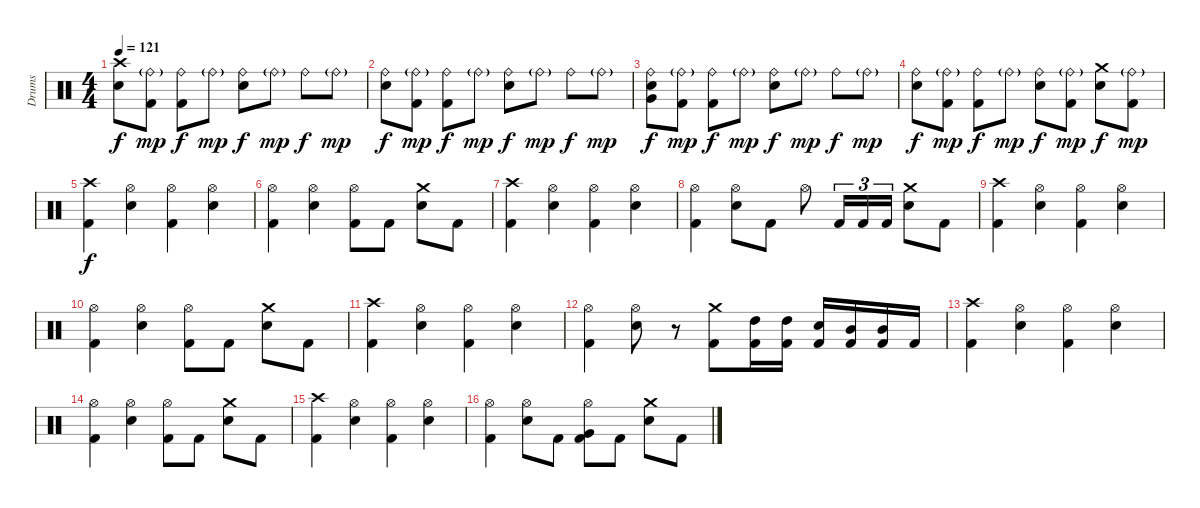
\track ("Drums" "Drums") {instrument percussion}
\staff {score}
\articulation defaults
\ts (4 4)
\tempo 121
\clef neutral
\ks c
("Crash high (hit)" "Electric Snare (hit)").8{dy f} ("Ride (bell)"{g} "Kick (hit) 2").8{dy mp} ("Ride (bell)" "Kick (hit) 2").8{dy f} "Ride (bell)"{g}.8{dy mp} ("Ride (bell)" "Electric Snare (hit)").8{dy f} "Ride (bell)"{g}.8{dy mp} "Ride (bell)".8{dy f} "Ride (bell)"{g}.8{dy mp} |
("Ride (bell)" "Electric Snare (hit)").8{dy f} ("Ride (bell)"{g} "Kick (hit) 2").8{dy mp} ("Ride (bell)" "Kick (hit) 2").8{dy f} "Ride (bell)"{g}.8{dy mp} ("Ride (bell)" "Electric Snare (hit)").8{dy f} "Ride (bell)"{g}.8{dy mp} "Ride (bell)".8{dy f} "Ride (bell)"{g}.8{dy mp} |
("Ride (bell)" "Electric Snare (hit)" "Very Low Tom (hit)").8{dy f} ("Ride (bell)"{g} "Kick (hit) 2").8{dy mp} ("Ride (bell)" "Kick (hit) 2").8{dy f} "Ride (bell)"{g}.8{dy mp} ("Ride (bell)" "Electric Snare (hit)").8{dy f} "Ride (bell)"{g}.8{dy mp} "Ride (bell)".8{dy f} "Ride (bell)"{g}.8{dy mp} |
("Ride (bell)" "Electric Snare (hit)").8{dy f} ("Ride (bell)"{g} "Kick (hit) 2").8{dy mp} ("Ride (bell)" "Kick (hit) 2").8{dy f} "Ride (bell)"{g}.8{dy mp} ("Ride (bell)" "Electric Snare (hit)").8{dy f} ("Ride (bell)"{g} "Kick (hit) 2").8{dy mp} ("Crash medium (hit)" "Electric Snare (hit)").8{dy f} ("Ride (bell)"{g} "Kick (hit) 2").8{dy mp} |
("Crash high (hit)" "Kick (hit) 2").4{dy f} ("Hi-Hat (open)" "Electric Snare (hit)").4 ("Hi-Hat (open)" "Kick (hit) 2").4 ("Hi-Hat (open)" "Electric Snare (hit)").4 |
("Hi-Hat (open)" "Kick (hit) 2").4 ("Hi-Hat (open)" "Electric Snare (hit)").4 ("Hi-Hat (open)" "Kick (hit) 2").8 "Kick (hit) 2".8 ("Crash medium (hit)" "Electric Snare (hit)").8 "Kick (hit) 2".8 |
("Crash high (hit)" "Kick (hit) 2").4 ("Hi-Hat (open)" "Electric Snare (hit)").4 ("Hi-Hat (open)" "Kick (hit) 2").4 ("Hi-Hat (open)" "Electric Snare (hit)").4 |
("Hi-Hat (open)" "Kick (hit) 2").4 ("Hi-Hat (open)" "Electric Snare (hit)").8 "Kick (hit) 2".8 "Hi-Hat (open)".8 "Kick (hit) 2".16{tu (3 2)} "Kick (hit) 2".16{tu (3 2)} "Kick (hit) 2".16{tu (3 2)} ("Crash medium (hit)" "Electric Snare (hit)").8 "Kick (hit) 2".8 |
("Crash high (hit)" "Kick (hit) 2").4 ("Hi-Hat (open)" "Electric Snare (hit)").4 ("Hi-Hat (open)" "Kick (hit) 2").4 ("Hi-Hat (open)" "Electric Snare (hit)").4 |
("Hi-Hat (open)" "Kick (hit) 2").4 ("Hi-Hat (open)" "Electric Snare (hit)").4 ("Hi-Hat (open)" "Kick (hit) 2").8 "Kick (hit) 2".8 ("Crash medium (hit)" "Electric Snare (hit)").8 "Kick (hit) 2".8 |
("Crash high (hit)" "Kick (hit) 2").4 ("Hi-Hat (open)" "Electric Snare (hit)").4 ("Hi-Hat (open)" "Kick (hit) 2").4 ("Hi-Hat (open)" "Electric Snare (hit)").4 |
("Hi-Hat (open)" "Kick (hit) 2").4 ("Hi-Hat (open)" "Electric Snare (hit)").8 r.8 ("Crash medium (hit)" "Kick (hit) 2").8 ("High Tom (hit)" "Kick (hit) 2").16 ("High Tom (hit)" "Kick (hit) 2").16 ("Electric Snare (hit)" "Kick (hit) 2").16 ("Mid Tom (hit)" "Kick (hit) 2").16 ("Mid Tom (hit)" "Kick (hit) 2").16 "Kick (hit) 2".16 |
("Crash high (hit)" "Kick (hit) 2").4 ("Hi-Hat (open)" "Electric Snare (hit)").4 ("Hi-Hat (open)" "Kick (hit) 2").4 ("Hi-Hat (open)" "Electric Snare (hit)").4 |
("Hi-Hat (open)" "Kick (hit) 2").4 ("Hi-Hat (open)" "Electric Snare (hit)").4 ("Hi-Hat (open)" "Kick (hit) 2").8 "Kick (hit) 2".8 ("Crash medium (hit)" "Electric Snare (hit)").8 "Kick (hit) 2".8 |
("Crash high (hit)" "Kick (hit) 2").4 ("Hi-Hat (open)" "Electric Snare (hit)").4 ("Hi-Hat (open)" "Kick (hit) 2").4 ("Hi-Hat (open)" "Electric Snare (hit)").4 |
("Hi-Hat (open)" "Kick (hit) 2").4 ("Hi-Hat (open)" "Electric Snare (hit)").8 "Kick (hit) 2".8 ("Hi-Hat (open)" "Very Low Tom (hit)" "Kick (hit) 2").8 "Kick (hit) 2".8 ("Crash medium (hit)" "Electric Snare (hit)").8 "Kick (hit) 2".8
